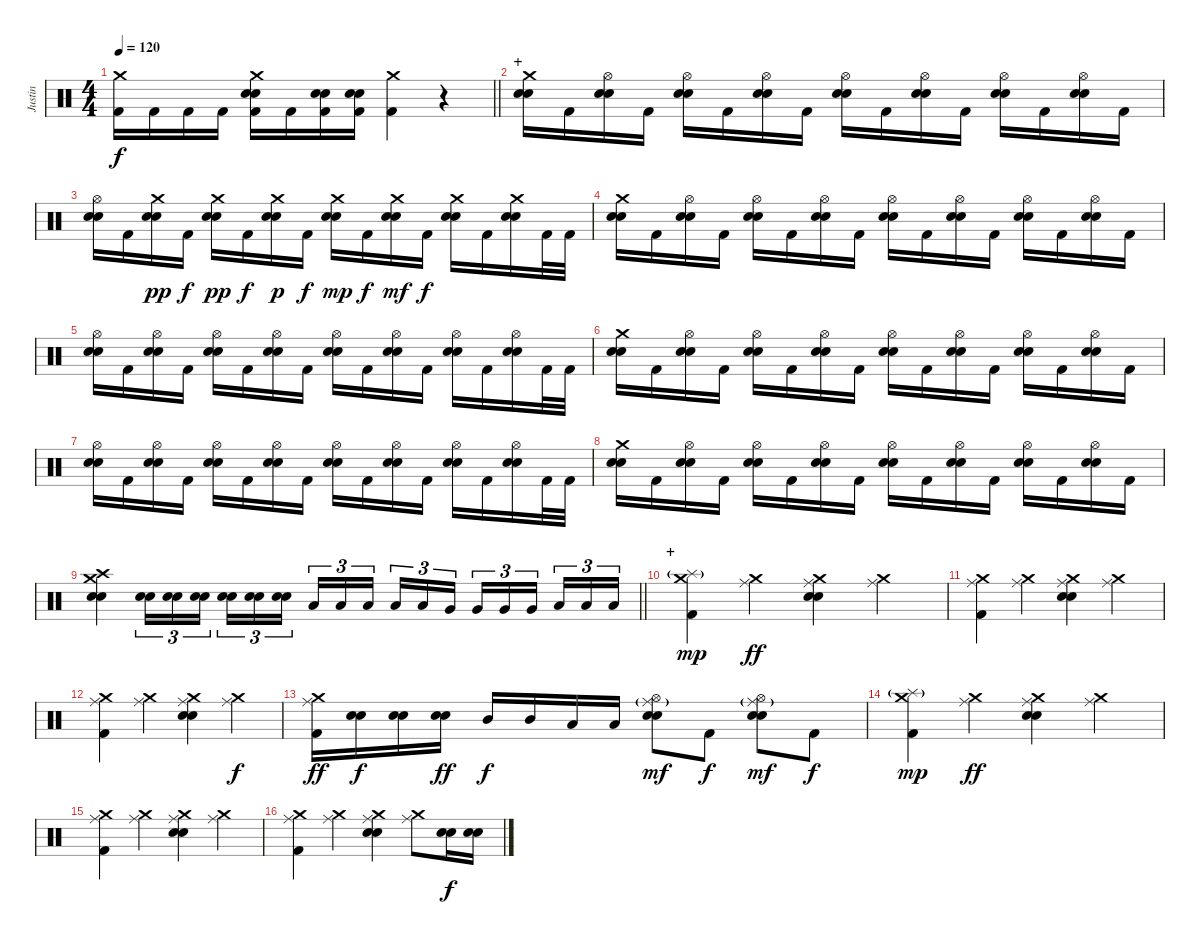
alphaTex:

\track ("Justin" "Justin") {instrument percussion}
\staff {score}
\articulation defaults
\ts (4 4)
\tempo 120
\clef neutral
\barLineRight lightlight
\ks c
("Crash medium (hit)" "Kick (hit) 2").16{dy f} "Kick (hit) 2".16 "Kick (hit) 2".16 "Kick (hit) 2".16 ("Crash medium (hit)" "Electric Snare (hit)" "Snare (hit) 2" "Kick (hit) 2").16 "Kick (hit) 2".16 ("Electric Snare (hit)" "Snare (hit) 2" "Kick (hit) 2").16 ("Electric Snare (hit)" "Snare (hit) 2" "Kick (hit) 2").16 ("Crash medium (hit)" "Kick (hit) 2").4 r.4 |
\section ("" "+")
("Crash medium (hit)" "Electric Snare (hit)" "Snare (hit) 2").16 "Kick (hit) 2".16 ("Hi-Hat (open)" "Electric Snare (hit)" "Snare (hit) 2").16 "Kick (hit) 2".16 ("Hi-Hat (open)" "Electric Snare (hit)" "Snare (hit) 2").16 "Kick (hit) 2".16 ("Hi-Hat (open)" "Electric Snare (hit)" "Snare (hit) 2").16 "Kick (hit) 2".16 ("Hi-Hat (open)" "Electric Snare (hit)" "Snare (hit) 2").16 "Kick (hit) 2".16 ("Hi-Hat (open)" "Electric Snare (hit)" "Snare (hit) 2").16 "Kick (hit) 2".16 ("Hi-Hat (open)" "Electric Snare (hit)" "Snare (hit) 2").16 "Kick (hit) 2".16 ("Hi-Hat (open)" "Electric Snare (hit)" "Snare (hit) 2").16 "Kick (hit) 2".16 |
("Hi-Hat (open)" "Electric Snare (hit)" "Snare (hit) 2").16 "Kick (hit) 2".16 ("Crash medium (hit)" "Electric Snare (hit)" "Snare (hit) 2").16{dy pp} "Kick (hit) 2".16{dy f} ("Crash medium (hit)" "Electric Snare (hit)" "Snare (hit) 2").16{dy pp} "Kick (hit) 2".16{dy f} ("Crash medium (hit)" "Electric Snare (hit)" "Snare (hit) 2").16{dy p} "Kick (hit) 2".16{dy f} ("Crash medium (hit)" "Electric Snare (hit)" "Snare (hit) 2").16{dy mp} "Kick (hit) 2".16{dy f} ("Crash medium (hit)" "Electric Snare (hit)" "Snare (hit) 2").16{dy mf} "Kick (hit) 2".16{dy f} ("Crash medium (hit)" "Electric Snare (hit)" "Snare (hit) 2").16 "Kick (hit) 2".16 ("Crash medium (hit)" "Electric Snare (hit)" "Snare (hit) 2").16 "Kick (hit) 2".32 "Kick (hit) 2".32 |
("Crash medium (hit)" "Electric Snare (hit)" "Snare (hit) 2").16 "Kick (hit) 2".16 ("Hi-Hat (open)" "Electric Snare (hit)" "Snare (hit) 2").16 "Kick (hit) 2".16 ("Hi-Hat (open)" "Electric Snare (hit)" "Snare (hit) 2").16 "Kick (hit) 2".16 ("Hi-Hat (open)" "Electric Snare (hit)" "Snare (hit) 2").16 "Kick (hit) 2".16 ("Hi-Hat (open)" "Electric Snare (hit)" "Snare (hit) 2").16 "Kick (hit) 2".16 ("Hi-Hat (open)" "Electric Snare (hit)" "Snare (hit) 2").16 "Kick (hit) 2".16 ("Hi-Hat (open)" "Electric Snare (hit)" "Snare (hit) 2").16 "Kick (hit) 2".16 ("Hi-Hat (open)" "Electric Snare (hit)" "Snare (hit) 2").16 "Kick (hit) 2".16 |
("Hi-Hat (open)" "Electric Snare (hit)" "Snare (hit) 2").16 "Kick (hit) 2".16 ("Hi-Hat (open)" "Electric Snare (hit)" "Snare (hit) 2").16 "Kick (hit) 2".16 ("Hi-Hat (open)" "Electric Snare (hit)" "Snare (hit) 2").16 "Kick (hit) 2".16 ("Hi-Hat (open)" "Electric Snare (hit)" "Snare (hit) 2").16 "Kick (hit) 2".16 ("Hi-Hat (open)" "Electric Snare (hit)" "Snare (hit) 2").16 "Kick (hit) 2".16 ("Hi-Hat (open)" "Electric Snare (hit)" "Snare (hit) 2").16 "Kick (hit) 2".16 ("Hi-Hat (open)" "Electric Snare (hit)" "Snare (hit) 2").16 "Kick (hit) 2".16 ("Hi-Hat (open)" "Electric Snare (hit)" "Snare (hit) 2").16 "Kick (hit) 2".32 "Kick (hit) 2".32 |
("Crash medium (hit)" "Electric Snare (hit)" "Snare (hit) 2").16 "Kick (hit) 2".16 ("Hi-Hat (open)" "Electric Snare (hit)" "Snare (hit) 2").16 "Kick (hit) 2".16 ("Hi-Hat (open)" "Electric Snare (hit)" "Snare (hit) 2").16 "Kick (hit) 2".16 ("Hi-Hat (open)" "Electric Snare (hit)" "Snare (hit) 2").16 "Kick (hit) 2".16 ("Hi-Hat (open)" "Electric Snare (hit)" "Snare (hit) 2").16 "Kick (hit) 2".16 ("Hi-Hat (open)" "Electric Snare (hit)" "Snare (hit) 2").16 "Kick (hit) 2".16 ("Hi-Hat (open)" "Electric Snare (hit)" "Snare (hit) 2").16 "Kick (hit) 2".16 ("Hi-Hat (open)" "Electric Snare (hit)" "Snare (hit) 2").16 "Kick (hit) 2".16 |
("Hi-Hat (open)" "Electric Snare (hit)" "Snare (hit) 2").16 "Kick (hit) 2".16 ("Hi-Hat (open)" "Electric Snare (hit)" "Snare (hit) 2").16 "Kick (hit) 2".16 ("Hi-Hat (open)" "Electric Snare (hit)" "Snare (hit) 2").16 "Kick (hit) 2".16 ("Hi-Hat (open)" "Electric Snare (hit)" "Snare (hit) 2").16 "Kick (hit) 2".16 ("Hi-Hat (open)" "Electric Snare (hit)" "Snare (hit) 2").16 "Kick (hit) 2".16 ("Hi-Hat (open)" "Electric Snare (hit)" "Snare (hit) 2").16 "Kick (hit) 2".16 ("Hi-Hat (open)" "Electric Snare (hit)" "Snare (hit) 2").16 "Kick (hit) 2".16 ("Hi-Hat (open)" "Electric Snare (hit)" "Snare (hit) 2").16 "Kick (hit) 2".32 "Kick (hit) 2".32 |
("Crash medium (hit)" "Electric Snare (hit)" "Snare (hit) 2").16 "Kick (hit) 2".16 ("Hi-Hat (open)" "Electric Snare (hit)" "Snare (hit) 2").16 "Kick (hit) 2".16 ("Hi-Hat (open)" "Electric Snare (hit)" "Snare (hit) 2").16 "Kick (hit) 2".16 ("Hi-Hat (open)" "Electric Snare (hit)" "Snare (hit) 2").16 "Kick (hit) 2".16 ("Hi-Hat (open)" "Electric Snare (hit)" "Snare (hit) 2").16 "Kick (hit) 2".16 ("Hi-Hat (open)" "Electric Snare (hit)" "Snare (hit) 2").16 "Kick (hit) 2".16 ("Hi-Hat (open)" "Electric Snare (hit)" "Snare (hit) 2").16 "Kick (hit) 2".16 ("Hi-Hat (open)" "Electric Snare (hit)" "Snare (hit) 2").16 "Kick (hit) 2".16 |
\barLineRight lightlight
("Crash medium (hit)" "Crash high (hit)" "Electric Snare (hit)" "Snare (hit) 2").4 ("Electric Snare (hit)" "Snare (hit) 2").16{tu (3 2)} ("Electric Snare (hit)" "Snare (hit) 2").16{tu (3 2)} ("Electric Snare (hit)" "Snare (hit) 2").16{tu (3 2) beam splitsecondary} ("Electric Snare (hit)" "Snare (hit) 2").16{tu (3 2)} ("Electric Snare (hit)" "Snare (hit) 2").16{tu (3 2)} ("Electric Snare (hit)" "Snare (hit) 2").16{tu (3 2)} "Low Tom (hit)".16{tu (3 2)} "Low Tom (hit)".16{tu (3 2)} "Low Tom (hit)".16{tu (3 2) beam splitsecondary} "Low Tom (hit)".16{tu (3 2)} "Low Tom (hit)".16{tu (3 2)} "Very Low Tom (hit)".16{tu (3 2)} "Very Low Tom (hit)".16{tu (3 2)} "Very Low Tom (hit)".16{tu (3 2)} "Very Low Tom (hit)".16{tu (3 2) beam splitsecondary} "Low Floor Tom (hit)".16{tu (3 2)} "Low Floor Tom (hit)".16{tu (3 2)} "Low Floor Tom (hit)".16{tu (3 2)} |
\section ("" "+")
("Crash medium (hit)" "Splash (hit)"{g} "Kick (hit) 2").4{dy mp} ("Crash medium (hit)" "Ride (middle)").4{dy ff} ("Crash medium (hit)" "Ride (middle)" "Electric Snare (hit)" "Snare (hit) 2").4 ("Crash medium (hit)" "Ride (middle)").4 |
("Crash medium (hit)" "Ride (middle)" "Kick (hit) 2").4 ("Crash medium (hit)" "Ride (middle)").4 ("Crash medium (hit)" "Ride (middle)" "Electric Snare (hit)" "Snare (hit) 2").4 ("Crash medium (hit)" "Ride (middle)").4 |
("Crash medium (hit)" "Ride (middle)" "Kick (hit) 2").4 ("Crash medium (hit)" "Ride (middle)").4 ("Crash medium (hit)" "Ride (middle)" "Electric Snare (hit)" "Snare (hit) 2").4 ("Crash medium (hit)" "Ride (middle)").4{dy f} |
("Crash medium (hit)" "Ride (middle)" "Kick (hit) 2").16{dy ff} ("Electric Snare (hit)" "Snare (hit) 2").16{dy f} ("Electric Snare (hit)" "Snare (hit) 2").16 ("Electric Snare (hit)" "Snare (hit) 2").16{dy ff} "Mid Tom (hit)".16{dy f} "Mid Tom (hit)".16 "Low Tom (hit)".16 "Low Tom (hit)".16 ("Ride (middle)"{g} "Hi-Hat (open)" "Electric Snare (hit)" "Snare (hit) 2").8{dy mf} "Kick (hit) 2".8{dy f} ("Ride (middle)"{g} "Hi-Hat (open)" "Electric Snare (hit)" "Snare (hit) 2").8{dy mf} "Kick (hit) 2".8{dy f} |
("Crash medium (hit)" "Splash (hit)"{g} "Kick (hit) 2").4{dy mp} ("Crash medium (hit)" "Ride (middle)").4{dy ff} ("Crash medium (hit)" "Ride (middle)" "Electric Snare (hit)" "Snare (hit) 2").4 ("Crash medium (hit)" "Ride (middle)").4 |
("Crash medium (hit)" "Ride (middle)" "Kick (hit) 2").4 ("Crash medium (hit)" "Ride (middle)").4 ("Crash medium (hit)" "Ride (middle)" "Electric Snare (hit)" "Snare (hit) 2").4 ("Crash medium (hit)" "Ride (middle)").4 |
("Crash medium (hit)" "Ride (middle)" "Kick (hit) 2").4 ("Crash medium (hit)" "Ride (middle)").4 ("Crash medium (hit)" "Ride (middle)" "Electric Snare (hit)" "Snare (hit) 2").4 ("Crash medium (hit)" "Ride (middle)").8 ("Electric Snare (hit)" "Snare (hit) 2").16{dy f} ("Electric Snare (hit)" "Snare (hit) 2").16
